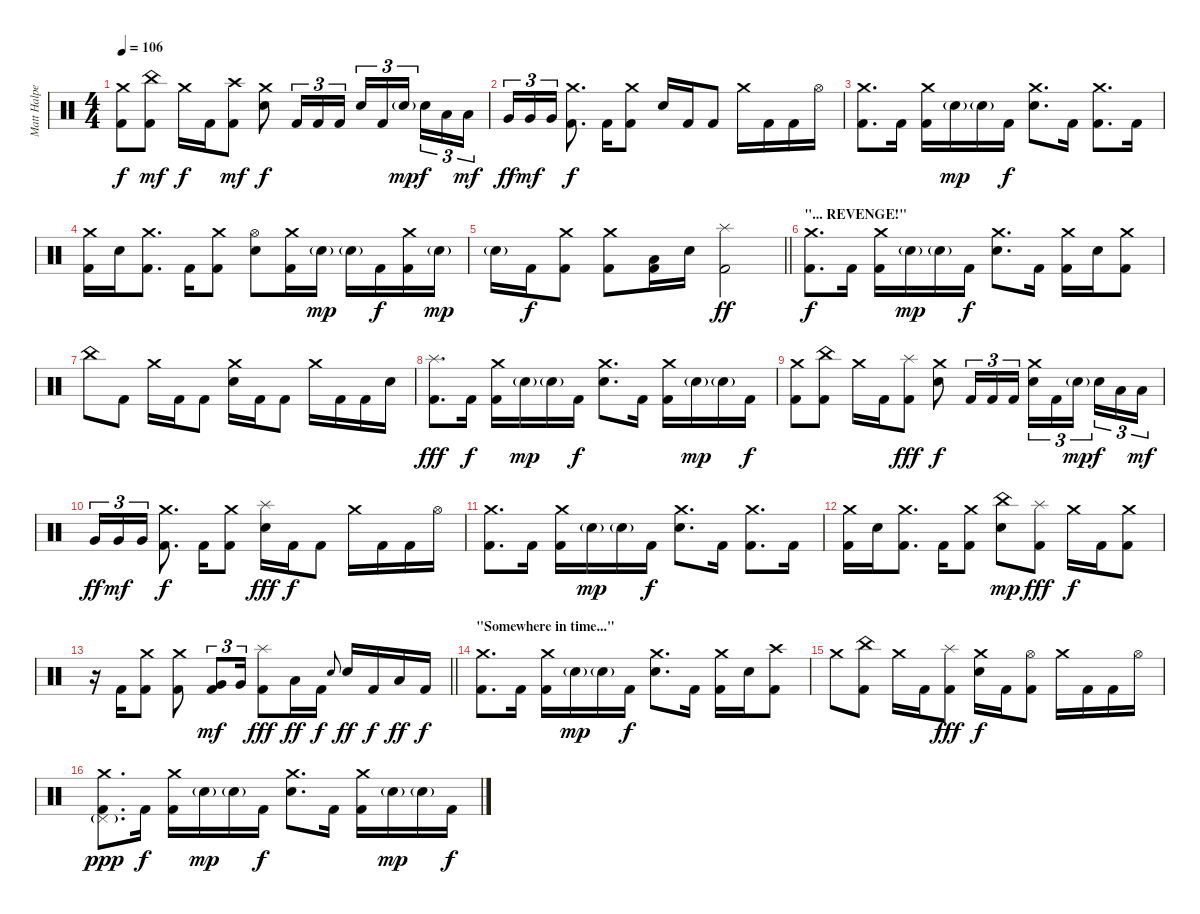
\track ("Matt Halpern - Drums" "Matt Halpe") {instrument percussion}
\staff {score}
\articulation defaults
\ts (4 4)
\tempo 106
\clef neutral
\ks c
("Crash medium (hit)" "Kick (hit) 2").8{dy f} ("China (hit)" "Kick (hit) 2").8{dy mf} "Crash medium (hit)".16{dy f} "Kick (hit) 2".16 ("Crash high (hit)" "Kick (hit) 2").8{dy mf} ("Crash medium (hit)" "Electric Snare (hit)").8{dy f} "Kick (hit) 2".16{tu (3 2)} "Kick (hit) 2".16{tu (3 2)} "Kick (hit) 2".16{tu (3 2)} "Electric Snare (hit)".16{tu (3 2)} "Kick (hit) 2".16{tu (3 2)} "Electric Snare (hit)"{g}.16{tu (3 2) dy mp beam splitsecondary} "Electric Snare (hit)".16{tu (3 2) dy f} "Low Tom (hit)".16{tu (3 2)} "Low Tom (hit)".16{tu (3 2) dy mf} |
"Very Low Tom (hit)".16{tu (3 2) dy ff} "Very Low Tom (hit)".16{tu (3 2) dy mf} "Very Low Tom (hit)".16{tu (3 2)} ("Crash medium (hit)" "Kick (hit) 2").8{d dy f} "Kick (hit) 2".16 ("Crash medium (hit)" "Kick (hit) 2").8 "Electric Snare (hit)".16 "Kick (hit) 2".16 "Kick (hit) 2".8 "Crash medium (hit)".16 "Kick (hit) 2".16 "Kick (hit) 2".16 "Hi-Hat (open)".16 |
("Crash medium (hit)" "Kick (hit) 2").8{d} "Kick (hit) 2".16 ("Crash medium (hit)" "Kick (hit) 2").16 "Electric Snare (hit)"{g}.16{dy mp} "Electric Snare (hit)"{g}.16 "Kick (hit) 2".16{dy f} ("Crash medium (hit)" "Electric Snare (hit)").8{d} "Kick (hit) 2".16 ("Crash medium (hit)" "Kick (hit) 2").8{d} "Kick (hit) 2".16 |
("Crash medium (hit)" "Kick (hit) 2").16 "Electric Snare (hit)".16 ("Crash medium (hit)" "Kick (hit) 2").8{d} "Kick (hit) 2".16 ("Crash medium (hit)" "Kick (hit) 2").8 ("Hi-Hat (open)" "Electric Snare (hit)").8 ("Crash medium (hit)" "Kick (hit) 2").16 "Electric Snare (hit)"{g}.16{dy mp} "Electric Snare (hit)"{g}.16 "Kick (hit) 2".16{dy f} ("Crash medium (hit)" "Kick (hit) 2").16 "Electric Snare (hit)"{g}.16{dy mp} |
\barLineRight lightlight "Electric Snare (hit)"{g}.16 "Kick (hit) 2".16{dy f}
("Crash medium (hit)" "Kick (hit) 2").8 ("Crash medium (hit)" "Kick (hit) 2").8 ("Low Floor Tom (hit)" "Kick (hit) 2").16 "Electric Snare (hit)".16 ("Splash (hit)" "Kick (hit) 2").2{dy ff} |
\section ("" "\"... REVENGE!\"")
("Crash medium (hit)" "Kick (hit) 2").8{d dy f} "Kick (hit) 2".16 ("Crash medium (hit)" "Kick (hit) 2").16 "Electric Snare (hit)"{g}.16{dy mp} "Electric Snare (hit)"{g}.16 "Kick (hit) 2".16{dy f} ("Crash medium (hit)" "Electric Snare (hit)").8{d} "Kick (hit) 2".16 ("Crash medium (hit)" "Kick (hit) 2").16 "Electric Snare (hit)".16 ("Crash medium (hit)" "Kick (hit) 2").8 |
"China (hit)".8 "Kick (hit) 2".8 "Crash medium (hit)".16 "Kick (hit) 2".16 "Kick (hit) 2".8 ("Crash medium (hit)" "Electric Snare (hit)").16 "Kick (hit) 2".16 "Kick (hit) 2".8 "Crash medium (hit)".16 "Kick (hit) 2".16 "Kick (hit) 2".16 "Electric Snare (hit)".16 |
("Splash (hit)" "Kick (hit) 2").8{d dy fff} "Kick (hit) 2".16{dy f} ("Crash medium (hit)" "Kick (hit) 2").16 "Electric Snare (hit)"{g}.16{dy mp} "Electric Snare (hit)"{g}.16 "Kick (hit) 2".16{dy f} ("Crash medium (hit)" "Electric Snare (hit)").8{d} "Kick (hit) 2".16 ("Crash medium (hit)" "Kick (hit) 2").16 "Electric Snare (hit)"{g}.16{dy mp} "Electric Snare (hit)"{g}.16 "Kick (hit) 2".16{dy f} |
("Crash medium (hit)" "Kick (hit) 2").8 ("China (hit)" "Kick (hit) 2").8 "Crash medium (hit)".16 "Kick (hit) 2".16 ("Splash (hit)" "Kick (hit) 2").8{dy fff} ("Crash medium (hit)" "Electric Snare (hit)").8{dy f} "Kick (hit) 2".16{tu (3 2)} "Kick (hit) 2".16{tu (3 2)} "Kick (hit) 2".16{tu (3 2)} ("Crash medium (hit)" "Electric Snare (hit)").16{tu (3 2)} "Kick (hit) 2".16{tu (3 2)} "Electric Snare (hit)"{g}.16{tu (3 2) dy mp beam splitsecondary} "Electric Snare (hit)".16{tu (3 2) dy f} "Low Tom (hit)".16{tu (3 2)} "Low Tom (hit)".16{tu (3 2) dy mf} |
"Very Low Tom (hit)".16{tu (3 2) dy ff} "Very Low Tom (hit)".16{tu (3 2) dy mf} "Very Low Tom (hit)".16{tu (3 2)} ("Crash medium (hit)" "Kick (hit) 2").8{d dy f} "Kick (hit) 2".16 ("Crash medium (hit)" "Kick (hit) 2").8 ("Splash (hit)" "Electric Snare (hit)").16{dy fff} "Kick (hit) 2".16{dy f} "Kick (hit) 2".8 "Crash medium (hit)".16 "Kick (hit) 2".16 "Kick (hit) 2".16 "Hi-Hat (open)".16 |
("Crash medium (hit)" "Kick (hit) 2").8{d} "Kick (hit) 2".16 ("Crash medium (hit)" "Kick (hit) 2").16 "Electric Snare (hit)"{g}.16{dy mp} "Electric Snare (hit)"{g}.16 "Kick (hit) 2".16{dy f} ("Crash medium (hit)" "Electric Snare (hit)").8{d} "Kick (hit) 2".16 ("Crash medium (hit)" "Kick (hit) 2").8{d} "Kick (hit) 2".16 |
("Crash medium (hit)" "Kick (hit) 2").16 "Electric Snare (hit)".16 ("Crash medium (hit)" "Kick (hit) 2").8{d} "Kick (hit) 2".16 ("Crash medium (hit)" "Kick (hit) 2").8 ("China (hit)" "Electric Snare (hit)").8{dy mp} ("Splash (hit)" "Kick (hit) 2").8{dy fff} "Crash medium (hit)".16{dy f} "Kick (hit) 2".16 ("Crash medium (hit)" "Kick (hit) 2").8 |
\barLineRight lightlight
r.16 "Kick (hit) 2".16 ("Crash medium (hit)" "Kick (hit) 2").8 ("Crash medium (hit)" "Kick (hit) 2").8 ("Very Low Tom (hit)" "Kick (hit) 2").8{tu (3 2) dy mf} "Very Low Tom (hit)".16{tu (3 2)} ("Splash (hit)" "Kick (hit) 2").8{dy fff} "Low Floor Tom (hit)".16{dy ff} "Kick (hit) 2".16{dy f} "Electric Snare (hit)".8{gr onbeat} "Electric Snare (hit)".16{dy ff} "Kick (hit) 2".16{dy f} "Low Floor Tom (hit)".16{dy ff} "Kick (hit) 2".16{dy f} |
\section ("" "\"Somewhere in time...\"")
("Crash medium (hit)" "Kick (hit) 2").8{d} "Kick (hit) 2".16 ("Crash medium (hit)" "Kick (hit) 2").16 "Electric Snare (hit)"{g}.16{dy mp} "Electric Snare (hit)"{g}.16 "Kick (hit) 2".16{dy f} ("Crash medium (hit)" "Electric Snare (hit)").8{d} "Kick (hit) 2".16 ("Crash medium (hit)" "Kick (hit) 2").16 "Electric Snare (hit)".16 ("Crash high (hit)" "Kick (hit) 2").8 |
"Crash medium (hit)".8 ("China (hit)" "Kick (hit) 2").8 "Crash medium (hit)".16 "Kick (hit) 2".16 ("Splash (hit)" "Kick (hit) 2").8{dy fff} ("Crash medium (hit)" "Electric Snare (hit)").16{dy f} "Kick (hit) 2".16 ("Hi-Hat (open)" "Kick (hit) 2").8 "Crash medium (hit)".16 "Kick (hit) 2".16 "Kick (hit) 2".16 "Hi-Hat (open)".16 |
("Crash medium (hit)" "Pedal Hi-Hat (hit)"{g} "Kick (hit) 2").8{d dy ppp} "Kick (hit) 2".16{dy f} ("Crash medium (hit)" "Kick (hit) 2").16 "Electric Snare (hit)"{g}.16{dy mp} "Electric Snare (hit)"{g}.16 "Kick (hit) 2".16{dy f} ("Crash medium (hit)" "Electric Snare (hit)").8{d} "Kick (hit) 2".16 ("Crash medium (hit)" "Kick (hit) 2").16 "Electric Snare (hit)"{g}.16{dy mp} "Electric Snare (hit)"{g}.16 "Kick (hit) 2".16{dy f}
